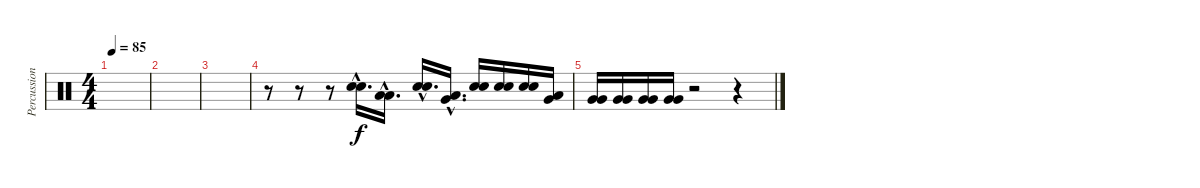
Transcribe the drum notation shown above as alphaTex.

\track ("Percussion" "Percussion") {instrument percussion}
\staff {score}
\articulation defaults
\ts (4 4)
\tempo 85
\clef neutral
\ks c
|
|
|
r.8 r.8 r.8 ("Snare (hit) 2"{hac} "Snare (hit) 2"{hac}).16{d} ("Low Floor Tom (hit)"{hac} "Low Floor Tom (hit)"{hac}).16{d} ("Snare (hit) 2"{hac} "Snare (hit) 2"{hac}).16{d} ("Very Low Tom (hit)"{hac} "Low Floor Tom (hit)"{hac}).16{d} ("Snare (hit) 2" "Snare (hit) 2").16 ("Snare (hit) 2" "Snare (hit) 2").16 ("Snare (hit) 2" "Snare (hit) 2").16 ("Very Low Tom (hit)" "Low Floor Tom (hit)").16 |
("Very Low Tom (hit)" "Very Low Tom (hit)").16 ("Very Low Tom (hit)" "Very Low Tom (hit)").16 ("Very Low Tom (hit)" "Very Low Tom (hit)").16 ("Very Low Tom (hit)" "Very Low Tom (hit)").16 r.2 r.4
